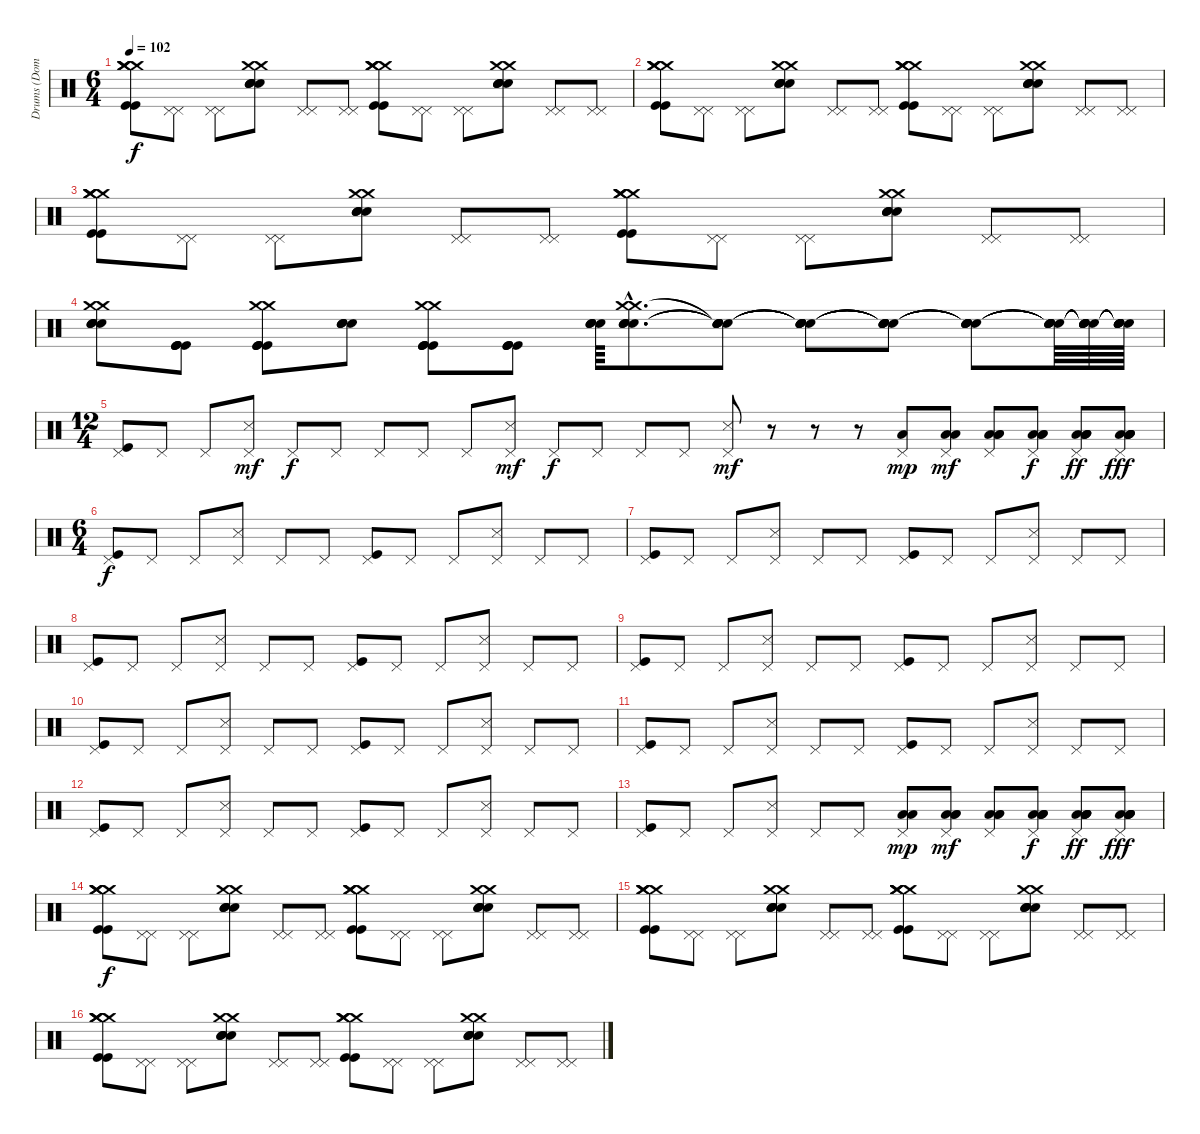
\track ("Drums (Dom)" "Drums (Dom") {instrument percussion}
\staff {score}
\articulation defaults
\ts (6 4)
\tempo 102
\clef neutral
\ks c
("Crash medium (hit)" "Crash medium (hit)" "Crash medium (hit)" "Crash medium (hit)" "Kick (hit)" "Kick (hit)").8{dy f} ("Pedal Hi-Hat (hit)" "Pedal Hi-Hat (hit)").8 ("Pedal Hi-Hat (hit)" "Pedal Hi-Hat (hit)").8 ("Crash medium (hit)" "Crash medium (hit)" "Electric Snare (hit)" "Electric Snare (hit)" "Electric Snare (hit)" "Electric Snare (hit)").8 ("Pedal Hi-Hat (hit)" "Pedal Hi-Hat (hit)").8 ("Pedal Hi-Hat (hit)" "Pedal Hi-Hat (hit)").8 ("Crash medium (hit)" "Crash medium (hit)" "Crash medium (hit)" "Crash medium (hit)" "Kick (hit)" "Kick (hit)").8 ("Pedal Hi-Hat (hit)" "Pedal Hi-Hat (hit)").8 ("Pedal Hi-Hat (hit)" "Pedal Hi-Hat (hit)").8 ("Crash medium (hit)" "Crash medium (hit)" "Electric Snare (hit)" "Electric Snare (hit)" "Electric Snare (hit)" "Electric Snare (hit)").8 ("Pedal Hi-Hat (hit)" "Pedal Hi-Hat (hit)").8 ("Pedal Hi-Hat (hit)" "Pedal Hi-Hat (hit)").8 |
("Crash medium (hit)" "Crash medium (hit)" "Crash medium (hit)" "Crash medium (hit)" "Kick (hit)" "Kick (hit)").8 ("Pedal Hi-Hat (hit)" "Pedal Hi-Hat (hit)").8 ("Pedal Hi-Hat (hit)" "Pedal Hi-Hat (hit)").8 ("Crash medium (hit)" "Crash medium (hit)" "Electric Snare (hit)" "Electric Snare (hit)" "Electric Snare (hit)" "Electric Snare (hit)").8 ("Pedal Hi-Hat (hit)" "Pedal Hi-Hat (hit)").8 ("Pedal Hi-Hat (hit)" "Pedal Hi-Hat (hit)").8 ("Crash medium (hit)" "Crash medium (hit)" "Crash medium (hit)" "Crash medium (hit)" "Kick (hit)" "Kick (hit)").8 ("Pedal Hi-Hat (hit)" "Pedal Hi-Hat (hit)").8 ("Pedal Hi-Hat (hit)" "Pedal Hi-Hat (hit)").8 ("Crash medium (hit)" "Crash medium (hit)" "Electric Snare (hit)" "Electric Snare (hit)" "Electric Snare (hit)" "Electric Snare (hit)").8 ("Pedal Hi-Hat (hit)" "Pedal Hi-Hat (hit)").8 ("Pedal Hi-Hat (hit)" "Pedal Hi-Hat (hit)").8 |
("Crash medium (hit)" "Crash medium (hit)" "Crash medium (hit)" "Crash medium (hit)" "Kick (hit)" "Kick (hit)").8 ("Pedal Hi-Hat (hit)" "Pedal Hi-Hat (hit)").8 ("Pedal Hi-Hat (hit)" "Pedal Hi-Hat (hit)").8 ("Crash medium (hit)" "Crash medium (hit)" "Electric Snare (hit)" "Electric Snare (hit)" "Electric Snare (hit)" "Electric Snare (hit)").8 ("Pedal Hi-Hat (hit)" "Pedal Hi-Hat (hit)").8 ("Pedal Hi-Hat (hit)" "Pedal Hi-Hat (hit)").8 ("Crash medium (hit)" "Crash medium (hit)" "Crash medium (hit)" "Crash medium (hit)" "Kick (hit)" "Kick (hit)").8 ("Pedal Hi-Hat (hit)" "Pedal Hi-Hat (hit)").8 ("Pedal Hi-Hat (hit)" "Pedal Hi-Hat (hit)").8 ("Crash medium (hit)" "Crash medium (hit)" "Electric Snare (hit)" "Electric Snare (hit)" "Electric Snare (hit)" "Electric Snare (hit)").8 ("Pedal Hi-Hat (hit)" "Pedal Hi-Hat (hit)").8 ("Pedal Hi-Hat (hit)" "Pedal Hi-Hat (hit)").8 |
("Crash medium (hit)" "Crash medium (hit)" "Electric Snare (hit)" "Electric Snare (hit)" "Electric Snare (hit)" "Electric Snare (hit)").8 ("Kick (hit)" "Kick (hit)" "Kick (hit)" "Kick (hit)").8 ("Crash medium (hit)" "Crash medium (hit)" "Kick (hit)" "Kick (hit)" "Kick (hit)" "Kick (hit)").8 ("Electric Snare (hit)" "Electric Snare (hit)" "Electric Snare (hit)" "Electric Snare (hit)").8 ("Crash medium (hit)" "Crash medium (hit)" "Kick (hit)" "Kick (hit)" "Kick (hit)" "Kick (hit)").8 ("Kick (hit)" "Kick (hit)" "Kick (hit)" "Kick (hit)").8 ("Electric Snare (hit)" "Electric Snare (hit)" "Electric Snare (hit)" "Electric Snare (hit)").64 ("Crash medium (hit)"{hac} "Crash medium (hit)"{hac} "Electric Snare (hit)"{hac} "Electric Snare (hit)"{hac} "Electric Snare (hit)"{hac} "Electric Snare (hit)"{hac}).8{d} ("Snare (hit)"{t} "Snare (hit)"{t} "Snare (hit)"{t} "Snare (hit)"{t} "Snare (hit)"{t} "Snare (hit)"{t}).8 ("Snare (hit)"{t} "Snare (hit)"{t} "Snare (hit)"{t} "Snare (hit)"{t} "Snare (hit)"{t} "Snare (hit)"{t}).8 ("Snare (hit)"{t} "Snare (hit)"{t} "Snare (hit)"{t} "Snare (hit)"{t} "Snare (hit)"{t} "Snare (hit)"{t}).8 ("Snare (hit)"{t} "Snare (hit)"{t} "Snare (hit)"{t} "Snare (hit)"{t} "Snare (hit)"{t} "Snare (hit)"{t}).8 ("Snare (hit)"{t} "Snare (hit)"{t} "Snare (hit)"{t} "Snare (hit)"{t} "Snare (hit)"{t} "Snare (hit)"{t}).64 ("Snare (hit)"{t} "Snare (hit)"{t} "Snare (hit)"{t} "Snare (hit)"{t} "Snare (hit)"{t} "Snare (hit)"{t}).64 ("Snare (hit)"{t} "Snare (hit)"{t} "Snare (hit)"{t} "Snare (hit)"{t} "Snare (hit)"{t} "Snare (hit)"{t}).64 |
\ts (12 4)
("Pedal Hi-Hat (hit)" "Kick (hit)").8 "Pedal Hi-Hat (hit)".8 "Pedal Hi-Hat (hit)".8 ("Pedal Hi-Hat (hit)" "Snare (side stick) 3").8{dy mf} "Pedal Hi-Hat (hit)".8{dy f} "Pedal Hi-Hat (hit)".8 "Pedal Hi-Hat (hit)".8 "Pedal Hi-Hat (hit)".8 "Pedal Hi-Hat (hit)".8 ("Pedal Hi-Hat (hit)" "Snare (side stick) 3").8{dy mf} "Pedal Hi-Hat (hit)".8{dy f} "Pedal Hi-Hat (hit)".8 "Pedal Hi-Hat (hit)".8 "Pedal Hi-Hat (hit)".8 ("Pedal Hi-Hat (hit)" "Snare (side stick) 3").8{dy mf} r.8 r.8 r.8 ("Pedal Hi-Hat (hit)" "Low Tom (hit)").8{dy mp} ("Pedal Hi-Hat (hit)" "Low Tom (hit)" "Low Tom (hit)").8{dy mf} ("Pedal Hi-Hat (hit)" "Low Tom (hit)" "Low Tom (hit)" "Low Tom (hit)").8 ("Pedal Hi-Hat (hit)" "Low Tom (hit)" "Low Tom (hit)" "Low Tom (hit)").8{dy f} ("Pedal Hi-Hat (hit)" "Low Tom (hit)" "Low Tom (hit)" "Low Tom (hit)" "Low Tom (hit)").8{dy ff} ("Pedal Hi-Hat (hit)" "Low Tom (hit)" "Low Tom (hit)" "Low Tom (hit)" "Low Tom (hit)" "Low Tom (hit)").8{dy fff} |
\ts (6 4)
("Pedal Hi-Hat (hit)" "Kick (hit)").8{dy f} "Pedal Hi-Hat (hit)".8 "Pedal Hi-Hat (hit)".8 ("Pedal Hi-Hat (hit)" "Snare (side stick) 3").8 "Pedal Hi-Hat (hit)".8 "Pedal Hi-Hat (hit)".8 ("Pedal Hi-Hat (hit)" "Kick (hit)").8 "Pedal Hi-Hat (hit)".8 "Pedal Hi-Hat (hit)".8 ("Pedal Hi-Hat (hit)" "Snare (side stick) 3").8 "Pedal Hi-Hat (hit)".8 "Pedal Hi-Hat (hit)".8 |
("Pedal Hi-Hat (hit)" "Kick (hit)").8 "Pedal Hi-Hat (hit)".8 "Pedal Hi-Hat (hit)".8 ("Pedal Hi-Hat (hit)" "Snare (side stick) 3").8 "Pedal Hi-Hat (hit)".8 "Pedal Hi-Hat (hit)".8 ("Pedal Hi-Hat (hit)" "Kick (hit)").8 "Pedal Hi-Hat (hit)".8 "Pedal Hi-Hat (hit)".8 ("Pedal Hi-Hat (hit)" "Snare (side stick) 3").8 "Pedal Hi-Hat (hit)".8 "Pedal Hi-Hat (hit)".8 |
("Pedal Hi-Hat (hit)" "Kick (hit)").8 "Pedal Hi-Hat (hit)".8 "Pedal Hi-Hat (hit)".8 ("Pedal Hi-Hat (hit)" "Snare (side stick) 3").8 "Pedal Hi-Hat (hit)".8 "Pedal Hi-Hat (hit)".8 ("Pedal Hi-Hat (hit)" "Kick (hit)").8 "Pedal Hi-Hat (hit)".8 "Pedal Hi-Hat (hit)".8 ("Pedal Hi-Hat (hit)" "Snare (side stick) 3").8 "Pedal Hi-Hat (hit)".8 "Pedal Hi-Hat (hit)".8 |
("Pedal Hi-Hat (hit)" "Kick (hit)").8 "Pedal Hi-Hat (hit)".8 "Pedal Hi-Hat (hit)".8 ("Pedal Hi-Hat (hit)" "Snare (side stick) 3").8 "Pedal Hi-Hat (hit)".8 "Pedal Hi-Hat (hit)".8 ("Pedal Hi-Hat (hit)" "Kick (hit)").8 "Pedal Hi-Hat (hit)".8 "Pedal Hi-Hat (hit)".8 ("Pedal Hi-Hat (hit)" "Snare (side stick) 3").8 "Pedal Hi-Hat (hit)".8 "Pedal Hi-Hat (hit)".8 |
("Pedal Hi-Hat (hit)" "Kick (hit)").8 "Pedal Hi-Hat (hit)".8 "Pedal Hi-Hat (hit)".8 ("Pedal Hi-Hat (hit)" "Snare (side stick) 3").8 "Pedal Hi-Hat (hit)".8 "Pedal Hi-Hat (hit)".8 ("Pedal Hi-Hat (hit)" "Kick (hit)").8 "Pedal Hi-Hat (hit)".8 "Pedal Hi-Hat (hit)".8 ("Pedal Hi-Hat (hit)" "Snare (side stick) 3").8 "Pedal Hi-Hat (hit)".8 "Pedal Hi-Hat (hit)".8 |
("Pedal Hi-Hat (hit)" "Kick (hit)").8 "Pedal Hi-Hat (hit)".8 "Pedal Hi-Hat (hit)".8 ("Pedal Hi-Hat (hit)" "Snare (side stick) 3").8 "Pedal Hi-Hat (hit)".8 "Pedal Hi-Hat (hit)".8 ("Pedal Hi-Hat (hit)" "Kick (hit)").8 "Pedal Hi-Hat (hit)".8 "Pedal Hi-Hat (hit)".8 ("Pedal Hi-Hat (hit)" "Snare (side stick) 3").8 "Pedal Hi-Hat (hit)".8 "Pedal Hi-Hat (hit)".8 |
("Pedal Hi-Hat (hit)" "Kick (hit)").8 "Pedal Hi-Hat (hit)".8 "Pedal Hi-Hat (hit)".8 ("Pedal Hi-Hat (hit)" "Snare (side stick) 3").8 "Pedal Hi-Hat (hit)".8 "Pedal Hi-Hat (hit)".8 ("Pedal Hi-Hat (hit)" "Kick (hit)").8 "Pedal Hi-Hat (hit)".8 "Pedal Hi-Hat (hit)".8 ("Pedal Hi-Hat (hit)" "Snare (side stick) 3").8 "Pedal Hi-Hat (hit)".8 "Pedal Hi-Hat (hit)".8 |
("Pedal Hi-Hat (hit)" "Kick (hit)").8 "Pedal Hi-Hat (hit)".8 "Pedal Hi-Hat (hit)".8 ("Pedal Hi-Hat (hit)" "Snare (side stick) 3").8 "Pedal Hi-Hat (hit)".8 "Pedal Hi-Hat (hit)".8 ("Pedal Hi-Hat (hit)" "Low Tom (hit)" "Low Tom (hit)").8{dy mp} ("Pedal Hi-Hat (hit)" "Low Tom (hit)" "Low Tom (hit)" "Low Tom (hit)").8{dy mf} ("Pedal Hi-Hat (hit)" "Low Tom (hit)" "Low Tom (hit)" "Low Tom (hit)").8 ("Pedal Hi-Hat (hit)" "Low Tom (hit)" "Low Tom (hit)" "Low Tom (hit)" "Low Tom (hit)").8{dy f} ("Pedal Hi-Hat (hit)" "Low Tom (hit)" "Low Tom (hit)" "Low Tom (hit)" "Low Tom (hit)" "Low Tom (hit)").8{dy ff} ("Pedal Hi-Hat (hit)" "Low Tom (hit)" "Low Tom (hit)" "Low Tom (hit)" "Low Tom (hit)" "Low Tom (hit)").8{dy fff} |
("Crash medium (hit)" "Crash medium (hit)" "Crash medium (hit)" "Crash medium (hit)" "Kick (hit)" "Kick (hit)").8{dy f} ("Pedal Hi-Hat (hit)" "Pedal Hi-Hat (hit)").8 ("Pedal Hi-Hat (hit)" "Pedal Hi-Hat (hit)").8 ("Crash medium (hit)" "Crash medium (hit)" "Electric Snare (hit)" "Electric Snare (hit)" "Electric Snare (hit)" "Electric Snare (hit)").8 ("Pedal Hi-Hat (hit)" "Pedal Hi-Hat (hit)").8 ("Pedal Hi-Hat (hit)" "Pedal Hi-Hat (hit)").8 ("Crash medium (hit)" "Crash medium (hit)" "Crash medium (hit)" "Crash medium (hit)" "Kick (hit)" "Kick (hit)").8 ("Pedal Hi-Hat (hit)" "Pedal Hi-Hat (hit)").8 ("Pedal Hi-Hat (hit)" "Pedal Hi-Hat (hit)").8 ("Crash medium (hit)" "Crash medium (hit)" "Electric Snare (hit)" "Electric Snare (hit)" "Electric Snare (hit)" "Electric Snare (hit)").8 ("Pedal Hi-Hat (hit)" "Pedal Hi-Hat (hit)").8 ("Pedal Hi-Hat (hit)" "Pedal Hi-Hat (hit)").8 |
("Crash medium (hit)" "Crash medium (hit)" "Crash medium (hit)" "Crash medium (hit)" "Kick (hit)" "Kick (hit)").8 ("Pedal Hi-Hat (hit)" "Pedal Hi-Hat (hit)").8 ("Pedal Hi-Hat (hit)" "Pedal Hi-Hat (hit)").8 ("Crash medium (hit)" "Crash medium (hit)" "Electric Snare (hit)" "Electric Snare (hit)" "Electric Snare (hit)" "Electric Snare (hit)").8 ("Pedal Hi-Hat (hit)" "Pedal Hi-Hat (hit)").8 ("Pedal Hi-Hat (hit)" "Pedal Hi-Hat (hit)").8 ("Crash medium (hit)" "Crash medium (hit)" "Crash medium (hit)" "Crash medium (hit)" "Kick (hit)" "Kick (hit)").8 ("Pedal Hi-Hat (hit)" "Pedal Hi-Hat (hit)").8 ("Pedal Hi-Hat (hit)" "Pedal Hi-Hat (hit)").8 ("Crash medium (hit)" "Crash medium (hit)" "Electric Snare (hit)" "Electric Snare (hit)" "Electric Snare (hit)" "Electric Snare (hit)").8 ("Pedal Hi-Hat (hit)" "Pedal Hi-Hat (hit)").8 ("Pedal Hi-Hat (hit)" "Pedal Hi-Hat (hit)").8 |
("Crash medium (hit)" "Crash medium (hit)" "Crash medium (hit)" "Crash medium (hit)" "Kick (hit)" "Kick (hit)").8 ("Pedal Hi-Hat (hit)" "Pedal Hi-Hat (hit)").8 ("Pedal Hi-Hat (hit)" "Pedal Hi-Hat (hit)").8 ("Crash medium (hit)" "Crash medium (hit)" "Electric Snare (hit)" "Electric Snare (hit)" "Electric Snare (hit)" "Electric Snare (hit)").8 ("Pedal Hi-Hat (hit)" "Pedal Hi-Hat (hit)").8 ("Pedal Hi-Hat (hit)" "Pedal Hi-Hat (hit)").8 ("Crash medium (hit)" "Crash medium (hit)" "Crash medium (hit)" "Crash medium (hit)" "Kick (hit)" "Kick (hit)").8 ("Pedal Hi-Hat (hit)" "Pedal Hi-Hat (hit)").8 ("Pedal Hi-Hat (hit)" "Pedal Hi-Hat (hit)").8 ("Crash medium (hit)" "Crash medium (hit)" "Electric Snare (hit)" "Electric Snare (hit)" "Electric Snare (hit)" "Electric Snare (hit)").8 ("Pedal Hi-Hat (hit)" "Pedal Hi-Hat (hit)").8 ("Pedal Hi-Hat (hit)" "Pedal Hi-Hat (hit)").8
